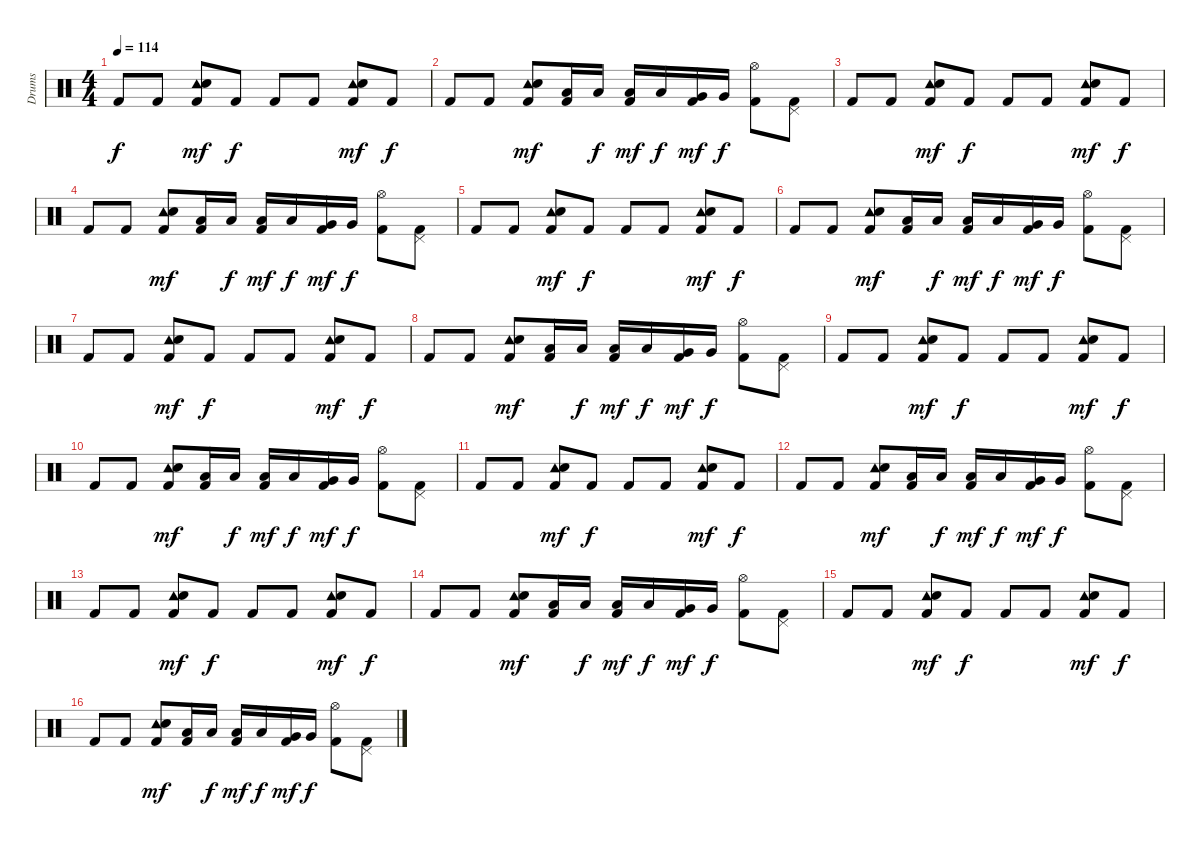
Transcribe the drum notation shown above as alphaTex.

\track ("Drums" "Drums") {instrument percussion}
\staff {score}
\articulation defaults
\ts (4 4)
\tempo 114
\clef neutral
\ks c "Kick (hit) 2".8{dy f volume 6} "Kick (hit) 2".8
("Tambourine (hit)" "Electric Snare (hit)" "Kick (hit) 2").8{dy mf} "Kick (hit) 2".8{dy f} "Kick (hit) 2".8 "Kick (hit) 2".8 ("Tambourine (hit)" "Electric Snare (hit)" "Kick (hit) 2").8{dy mf} "Kick (hit) 2".8{dy f} |
"Kick (hit) 2".8 "Kick (hit) 2".8 ("Tambourine (hit)" "Electric Snare (hit)" "Kick (hit) 2").8{dy mf} ("Low Tom (hit)" "Kick (hit) 2").16 "Low Tom (hit)".16{dy f} ("Low Tom (hit)" "Kick (hit) 2").16{dy mf} "Low Tom (hit)".16{dy f} ("Very Low Tom (hit)" "Kick (hit) 2").16{dy mf} "Very Low Tom (hit)".16{dy f} ("Hi-Hat (open)" "Kick (hit) 2").8 ("Pedal Hi-Hat (hit)" "Kick (hit) 2").8 |
"Kick (hit) 2".8 "Kick (hit) 2".8 ("Tambourine (hit)" "Electric Snare (hit)" "Kick (hit) 2").8{dy mf} "Kick (hit) 2".8{dy f} "Kick (hit) 2".8 "Kick (hit) 2".8 ("Tambourine (hit)" "Electric Snare (hit)" "Kick (hit) 2").8{dy mf} "Kick (hit) 2".8{dy f} |
"Kick (hit) 2".8 "Kick (hit) 2".8 ("Tambourine (hit)" "Electric Snare (hit)" "Kick (hit) 2").8{dy mf} ("Low Tom (hit)" "Kick (hit) 2").16 "Low Tom (hit)".16{dy f} ("Low Tom (hit)" "Kick (hit) 2").16{dy mf} "Low Tom (hit)".16{dy f} ("Very Low Tom (hit)" "Kick (hit) 2").16{dy mf} "Very Low Tom (hit)".16{dy f} ("Hi-Hat (open)" "Kick (hit) 2").8 ("Pedal Hi-Hat (hit)" "Kick (hit) 2").8 |
"Kick (hit) 2".8 "Kick (hit) 2".8 ("Tambourine (hit)" "Electric Snare (hit)" "Kick (hit) 2").8{dy mf} "Kick (hit) 2".8{dy f} "Kick (hit) 2".8 "Kick (hit) 2".8 ("Tambourine (hit)" "Electric Snare (hit)" "Kick (hit) 2").8{dy mf} "Kick (hit) 2".8{dy f} |
"Kick (hit) 2".8 "Kick (hit) 2".8 ("Tambourine (hit)" "Electric Snare (hit)" "Kick (hit) 2").8{dy mf} ("Low Tom (hit)" "Kick (hit) 2").16 "Low Tom (hit)".16{dy f} ("Low Tom (hit)" "Kick (hit) 2").16{dy mf} "Low Tom (hit)".16{dy f} ("Very Low Tom (hit)" "Kick (hit) 2").16{dy mf} "Very Low Tom (hit)".16{dy f} ("Hi-Hat (open)" "Kick (hit) 2").8 ("Pedal Hi-Hat (hit)" "Kick (hit) 2").8 |
"Kick (hit) 2".8 "Kick (hit) 2".8 ("Tambourine (hit)" "Electric Snare (hit)" "Kick (hit) 2").8{dy mf} "Kick (hit) 2".8{dy f} "Kick (hit) 2".8 "Kick (hit) 2".8 ("Tambourine (hit)" "Electric Snare (hit)" "Kick (hit) 2").8{dy mf} "Kick (hit) 2".8{dy f} |
"Kick (hit) 2".8 "Kick (hit) 2".8 ("Tambourine (hit)" "Electric Snare (hit)" "Kick (hit) 2").8{dy mf} ("Low Tom (hit)" "Kick (hit) 2").16 "Low Tom (hit)".16{dy f} ("Low Tom (hit)" "Kick (hit) 2").16{dy mf} "Low Tom (hit)".16{dy f} ("Very Low Tom (hit)" "Kick (hit) 2").16{dy mf} "Very Low Tom (hit)".16{dy f} ("Hi-Hat (open)" "Kick (hit) 2").8 ("Pedal Hi-Hat (hit)" "Kick (hit) 2").8 |
"Kick (hit) 2".8 "Kick (hit) 2".8 ("Tambourine (hit)" "Electric Snare (hit)" "Kick (hit) 2").8{dy mf} "Kick (hit) 2".8{dy f} "Kick (hit) 2".8 "Kick (hit) 2".8 ("Tambourine (hit)" "Electric Snare (hit)" "Kick (hit) 2").8{dy mf} "Kick (hit) 2".8{dy f} |
"Kick (hit) 2".8 "Kick (hit) 2".8 ("Tambourine (hit)" "Electric Snare (hit)" "Kick (hit) 2").8{dy mf} ("Low Tom (hit)" "Kick (hit) 2").16 "Low Tom (hit)".16{dy f} ("Low Tom (hit)" "Kick (hit) 2").16{dy mf} "Low Tom (hit)".16{dy f} ("Very Low Tom (hit)" "Kick (hit) 2").16{dy mf} "Very Low Tom (hit)".16{dy f} ("Hi-Hat (open)" "Kick (hit) 2").8 ("Pedal Hi-Hat (hit)" "Kick (hit) 2").8 |
"Kick (hit) 2".8 "Kick (hit) 2".8 ("Tambourine (hit)" "Electric Snare (hit)" "Kick (hit) 2").8{dy mf} "Kick (hit) 2".8{dy f} "Kick (hit) 2".8 "Kick (hit) 2".8 ("Tambourine (hit)" "Electric Snare (hit)" "Kick (hit) 2").8{dy mf} "Kick (hit) 2".8{dy f} |
"Kick (hit) 2".8 "Kick (hit) 2".8 ("Tambourine (hit)" "Electric Snare (hit)" "Kick (hit) 2").8{dy mf} ("Low Tom (hit)" "Kick (hit) 2").16 "Low Tom (hit)".16{dy f} ("Low Tom (hit)" "Kick (hit) 2").16{dy mf} "Low Tom (hit)".16{dy f} ("Very Low Tom (hit)" "Kick (hit) 2").16{dy mf} "Very Low Tom (hit)".16{dy f} ("Hi-Hat (open)" "Kick (hit) 2").8 ("Pedal Hi-Hat (hit)" "Kick (hit) 2").8 |
"Kick (hit) 2".8 "Kick (hit) 2".8 ("Tambourine (hit)" "Electric Snare (hit)" "Kick (hit) 2").8{dy mf} "Kick (hit) 2".8{dy f} "Kick (hit) 2".8 "Kick (hit) 2".8 ("Tambourine (hit)" "Electric Snare (hit)" "Kick (hit) 2").8{dy mf} "Kick (hit) 2".8{dy f} |
"Kick (hit) 2".8 "Kick (hit) 2".8 ("Tambourine (hit)" "Electric Snare (hit)" "Kick (hit) 2").8{dy mf} ("Low Tom (hit)" "Kick (hit) 2").16 "Low Tom (hit)".16{dy f} ("Low Tom (hit)" "Kick (hit) 2").16{dy mf} "Low Tom (hit)".16{dy f} ("Very Low Tom (hit)" "Kick (hit) 2").16{dy mf} "Very Low Tom (hit)".16{dy f} ("Hi-Hat (open)" "Kick (hit) 2").8 ("Pedal Hi-Hat (hit)" "Kick (hit) 2").8 |
"Kick (hit) 2".8 "Kick (hit) 2".8 ("Tambourine (hit)" "Electric Snare (hit)" "Kick (hit) 2").8{dy mf} "Kick (hit) 2".8{dy f} "Kick (hit) 2".8 "Kick (hit) 2".8 ("Tambourine (hit)" "Electric Snare (hit)" "Kick (hit) 2").8{dy mf} "Kick (hit) 2".8{dy f} |
"Kick (hit) 2".8 "Kick (hit) 2".8 ("Tambourine (hit)" "Electric Snare (hit)" "Kick (hit) 2").8{dy mf} ("Low Tom (hit)" "Kick (hit) 2").16 "Low Tom (hit)".16{dy f} ("Low Tom (hit)" "Kick (hit) 2").16{dy mf} "Low Tom (hit)".16{dy f} ("Very Low Tom (hit)" "Kick (hit) 2").16{dy mf} "Very Low Tom (hit)".16{dy f} ("Hi-Hat (open)" "Kick (hit) 2").8 ("Pedal Hi-Hat (hit)" "Kick (hit) 2").8
